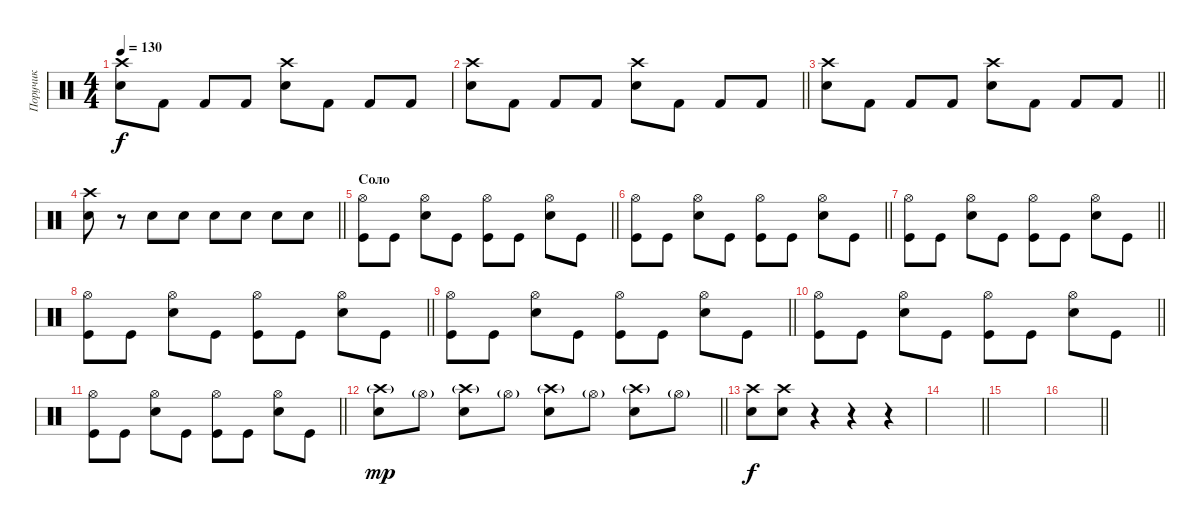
\track ("Поручик" "Поручик") {instrument percussion}
\staff {score}
\articulation defaults
\ts (4 4)
\tempo 130
\clef neutral
\ks c
("Crash high (hit)" "Electric Snare (hit)").8{dy f} "Kick (hit) 2".8 "Kick (hit) 2".8 "Kick (hit) 2".8 ("Electric Snare (hit)" "Crash high (hit)").8 "Kick (hit) 2".8 "Kick (hit) 2".8 "Kick (hit) 2".8 |
\barLineRight lightlight
("Crash high (hit)" "Electric Snare (hit)").8 "Kick (hit) 2".8 "Kick (hit) 2".8 "Kick (hit) 2".8 ("Electric Snare (hit)" "Crash high (hit)").8 "Kick (hit) 2".8 "Kick (hit) 2".8 "Kick (hit) 2".8 |
\barLineRight lightlight
("Crash high (hit)" "Electric Snare (hit)").8 "Kick (hit) 2".8 "Kick (hit) 2".8 "Kick (hit) 2".8 ("Electric Snare (hit)" "Crash high (hit)").8 "Kick (hit) 2".8 "Kick (hit) 2".8 "Kick (hit) 2".8 |
\barLineRight lightlight
("Electric Snare (hit)" "Crash high (hit)").8 r.8 "Snare (hit) 2".8 "Snare (hit) 2".8 "Snare (hit) 2".8 "Snare (hit) 2".8 "Snare (hit) 2".8 "Snare (hit) 2".8 |
\section ("" "Соло")
\barLineRight lightlight
("Kick (hit)" "Hi-Hat (open)").8 "Kick (hit)".8 ("Electric Snare (hit)" "Hi-Hat (open)").8 "Kick (hit)".8 ("Kick (hit)" "Hi-Hat (open)").8 "Kick (hit)".8 ("Electric Snare (hit)" "Hi-Hat (open)").8 "Kick (hit)".8 |
\barLineRight lightlight
("Kick (hit)" "Hi-Hat (open)").8 "Kick (hit)".8 ("Electric Snare (hit)" "Hi-Hat (open)").8 "Kick (hit)".8 ("Kick (hit)" "Hi-Hat (open)").8 "Kick (hit)".8 ("Electric Snare (hit)" "Hi-Hat (open)").8 "Kick (hit)".8 |
\barLineRight lightlight
("Kick (hit)" "Hi-Hat (open)").8 "Kick (hit)".8 ("Electric Snare (hit)" "Hi-Hat (open)").8 "Kick (hit)".8 ("Kick (hit)" "Hi-Hat (open)").8 "Kick (hit)".8 ("Electric Snare (hit)" "Hi-Hat (open)").8 "Kick (hit)".8 |
\barLineRight lightlight
("Kick (hit)" "Hi-Hat (open)").8 "Kick (hit)".8 ("Electric Snare (hit)" "Hi-Hat (open)").8 "Kick (hit)".8 ("Kick (hit)" "Hi-Hat (open)").8 "Kick (hit)".8 ("Electric Snare (hit)" "Hi-Hat (open)").8 "Kick (hit)".8 |
\barLineRight lightlight
("Kick (hit)" "Hi-Hat (open)").8 "Kick (hit)".8 ("Electric Snare (hit)" "Hi-Hat (open)").8 "Kick (hit)".8 ("Kick (hit)" "Hi-Hat (open)").8 "Kick (hit)".8 ("Electric Snare (hit)" "Hi-Hat (open)").8 "Kick (hit)".8 |
\barLineRight lightlight
("Kick (hit)" "Hi-Hat (open)").8 "Kick (hit)".8 ("Electric Snare (hit)" "Hi-Hat (open)").8 "Kick (hit)".8 ("Kick (hit)" "Hi-Hat (open)").8 "Kick (hit)".8 ("Electric Snare (hit)" "Hi-Hat (open)").8 "Kick (hit)".8 |
\barLineRight lightlight
("Kick (hit)" "Hi-Hat (open)").8 "Kick (hit)".8 ("Electric Snare (hit)" "Hi-Hat (open)").8 "Kick (hit)".8 ("Kick (hit)" "Hi-Hat (open)").8 "Kick (hit)".8 ("Electric Snare (hit)" "Hi-Hat (open)").8 "Kick (hit)".8 |
\barLineRight lightlight
("Snare (hit) 2" "Crash high (hit)"{g}).8{dy mp} "Hi-Hat (open)"{g}.8 ("Snare (hit) 2" "Crash high (hit)"{g}).8 "Hi-Hat (open)"{g}.8 ("Electric Snare (hit)" "Crash high (hit)"{g}).8 "Hi-Hat (open)"{g}.8 ("Crash high (hit)"{g} "Electric Snare (hit)").8 "Hi-Hat (open)"{g}.8 |
("Snare (hit) 2" "Crash high (hit)").8{dy f} ("Snare (hit) 2" "Crash high (hit)").8 r.4 r.4 r.4 |
\barLineRight lightlight
|
|
\barLineRight lightlight
